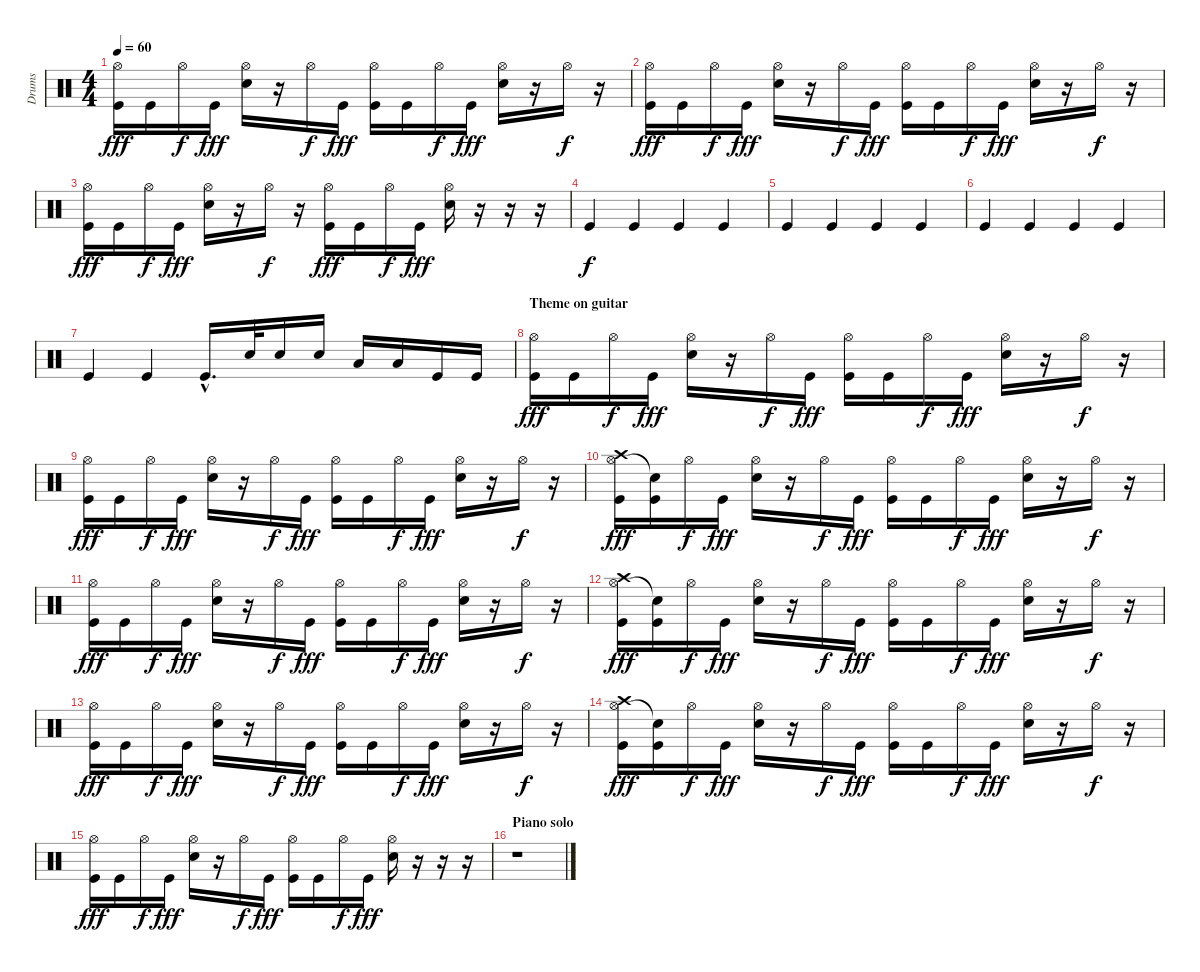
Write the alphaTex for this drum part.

\track ("Drums" "Drums") {instrument percussion}
\staff {score}
\articulation defaults
\ts (4 4)
\tempo 60
\clef neutral
\ks c
("Hi-Hat (open)" "Kick (hit)").16{dy fff} "Kick (hit)".16 "Hi-Hat (open)".16{dy f} "Kick (hit)".16{dy fff} ("Hi-Hat (open)" "Snare (hit) 2").16 r.16 "Hi-Hat (open)".16{dy f} "Kick (hit)".16{dy fff} ("Hi-Hat (open)" "Kick (hit)").16 "Kick (hit)".16 "Hi-Hat (open)".16{dy f} "Kick (hit)".16{dy fff} ("Hi-Hat (open)" "Snare (hit) 2").16 r.16 "Hi-Hat (open)".16{dy f} r.16 |
("Hi-Hat (open)" "Kick (hit)").16{dy fff} "Kick (hit)".16 "Hi-Hat (open)".16{dy f} "Kick (hit)".16{dy fff} ("Hi-Hat (open)" "Snare (hit) 2").16 r.16 "Hi-Hat (open)".16{dy f} "Kick (hit)".16{dy fff} ("Hi-Hat (open)" "Kick (hit)").16 "Kick (hit)".16 "Hi-Hat (open)".16{dy f} "Kick (hit)".16{dy fff} ("Hi-Hat (open)" "Snare (hit) 2").16 r.16 "Hi-Hat (open)".16{dy f} r.16 |
("Hi-Hat (open)" "Kick (hit)").16{dy fff} "Kick (hit)".16 "Hi-Hat (open)".16{dy f} "Kick (hit)".16{dy fff} ("Hi-Hat (open)" "Snare (hit) 2").16 r.16 "Hi-Hat (open)".16{dy f} r.16 ("Hi-Hat (open)" "Kick (hit)").16{dy fff} "Kick (hit)".16 "Hi-Hat (open)".16{dy f} "Kick (hit)".16{dy fff} ("Hi-Hat (open)" "Snare (hit) 2").16 r.16 r.16 r.16 |
"Kick (hit)".4{dy f} "Kick (hit)".4 "Kick (hit)".4 "Kick (hit)".4 |
"Kick (hit)".4 "Kick (hit)".4 "Kick (hit)".4 "Kick (hit)".4 |
"Kick (hit)".4 "Kick (hit)".4 "Kick (hit)".4 "Kick (hit)".4 |
"Kick (hit)".4 "Kick (hit)".4 "Kick (hit)"{hac}.16{d} "Snare (hit) 2".32 "Snare (hit) 2".16 "Snare (hit) 2".16 "Low Floor Tom (hit)".16 "Low Floor Tom (hit)".16 "Kick (hit)".16 "Kick (hit)".16 |
\section ("" "Theme on guitar")
("Hi-Hat (open)" "Kick (hit)").16{dy fff} "Kick (hit)".16 "Hi-Hat (open)".16{dy f} "Kick (hit)".16{dy fff} ("Hi-Hat (open)" "Snare (hit) 2").16 r.16 "Hi-Hat (open)".16{dy f} "Kick (hit)".16{dy fff} ("Hi-Hat (open)" "Kick (hit)").16 "Kick (hit)".16 "Hi-Hat (open)".16{dy f} "Kick (hit)".16{dy fff} ("Hi-Hat (open)" "Snare (hit) 2").16 r.16 "Hi-Hat (open)".16{dy f} r.16 |
("Hi-Hat (open)" "Kick (hit)").16{dy fff} "Kick (hit)".16 "Hi-Hat (open)".16{dy f} "Kick (hit)".16{dy fff} ("Hi-Hat (open)" "Snare (hit) 2").16 r.16 "Hi-Hat (open)".16{dy f} "Kick (hit)".16{dy fff} ("Hi-Hat (open)" "Kick (hit)").16 "Kick (hit)".16 "Hi-Hat (open)".16{dy f} "Kick (hit)".16{dy fff} ("Hi-Hat (open)" "Snare (hit) 2").16 r.16 "Hi-Hat (open)".16{dy f} r.16 |
("Hi-Hat (open)" "Crash high (hit)" "Kick (hit)").16{dy fff} ("Snare (hit)"{t} "Kick (hit)").16 "Hi-Hat (open)".16{dy f} "Kick (hit)".16{dy fff} ("Hi-Hat (open)" "Snare (hit) 2").16 r.16 "Hi-Hat (open)".16{dy f} "Kick (hit)".16{dy fff} ("Hi-Hat (open)" "Kick (hit)").16 "Kick (hit)".16 "Hi-Hat (open)".16{dy f} "Kick (hit)".16{dy fff} ("Hi-Hat (open)" "Snare (hit) 2").16 r.16 "Hi-Hat (open)".16{dy f} r.16 |
("Hi-Hat (open)" "Kick (hit)").16{dy fff} "Kick (hit)".16 "Hi-Hat (open)".16{dy f} "Kick (hit)".16{dy fff} ("Hi-Hat (open)" "Snare (hit) 2").16 r.16 "Hi-Hat (open)".16{dy f} "Kick (hit)".16{dy fff} ("Hi-Hat (open)" "Kick (hit)").16 "Kick (hit)".16 "Hi-Hat (open)".16{dy f} "Kick (hit)".16{dy fff} ("Hi-Hat (open)" "Snare (hit) 2").16 r.16 "Hi-Hat (open)".16{dy f} r.16 |
("Hi-Hat (open)" "Crash high (hit)" "Kick (hit)").16{dy fff} ("Snare (hit)"{t} "Kick (hit)").16 "Hi-Hat (open)".16{dy f} "Kick (hit)".16{dy fff} ("Hi-Hat (open)" "Snare (hit) 2").16 r.16 "Hi-Hat (open)".16{dy f} "Kick (hit)".16{dy fff} ("Hi-Hat (open)" "Kick (hit)").16 "Kick (hit)".16 "Hi-Hat (open)".16{dy f} "Kick (hit)".16{dy fff} ("Hi-Hat (open)" "Snare (hit) 2").16 r.16 "Hi-Hat (open)".16{dy f} r.16 |
("Hi-Hat (open)" "Kick (hit)").16{dy fff} "Kick (hit)".16 "Hi-Hat (open)".16{dy f} "Kick (hit)".16{dy fff} ("Hi-Hat (open)" "Snare (hit) 2").16 r.16 "Hi-Hat (open)".16{dy f} "Kick (hit)".16{dy fff} ("Hi-Hat (open)" "Kick (hit)").16 "Kick (hit)".16 "Hi-Hat (open)".16{dy f} "Kick (hit)".16{dy fff} ("Hi-Hat (open)" "Snare (hit) 2").16 r.16 "Hi-Hat (open)".16{dy f} r.16 |
("Hi-Hat (open)" "Crash high (hit)" "Kick (hit)").16{dy fff} ("Snare (hit)"{t} "Kick (hit)").16 "Hi-Hat (open)".16{dy f} "Kick (hit)".16{dy fff} ("Hi-Hat (open)" "Snare (hit) 2").16 r.16 "Hi-Hat (open)".16{dy f} "Kick (hit)".16{dy fff} ("Hi-Hat (open)" "Kick (hit)").16 "Kick (hit)".16 "Hi-Hat (open)".16{dy f} "Kick (hit)".16{dy fff} ("Hi-Hat (open)" "Snare (hit) 2").16 r.16 "Hi-Hat (open)".16{dy f} r.16 |
("Hi-Hat (open)" "Kick (hit)").16{dy fff} "Kick (hit)".16 "Hi-Hat (open)".16{dy f} "Kick (hit)".16{dy fff} ("Hi-Hat (open)" "Snare (hit) 2").16 r.16 "Hi-Hat (open)".16{dy f} "Kick (hit)".16{dy fff} ("Hi-Hat (open)" "Kick (hit)").16 "Kick (hit)".16 "Hi-Hat (open)".16{dy f} "Kick (hit)".16{dy fff} ("Hi-Hat (open)" "Snare (hit) 2").16 r.16 r.16 r.16 |
\section ("" "Piano solo")
r.1
